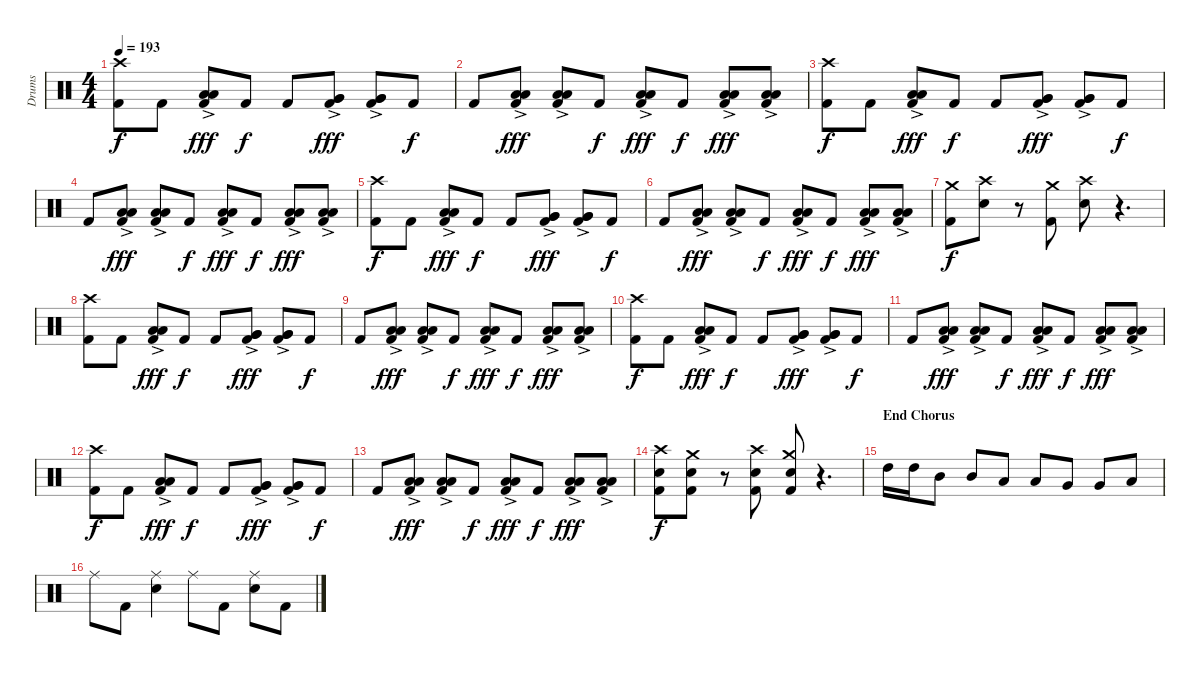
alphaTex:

\track ("Drums" "Drums") {instrument percussion}
\staff {score}
\articulation defaults
\ts (4 4)
\tempo 193
\clef neutral
\ks c
("Crash high (hit)" "Kick (hit) 2").8{dy f} "Kick (hit) 2".8 ("Low Tom (hit)"{ac} "Low Tom (hit)"{ac} "Kick (hit) 2").8{dy fff} "Kick (hit) 2".8{dy f} "Kick (hit) 2".8 ("Very Low Tom (hit)"{ac} "Very Low Tom (hit)"{ac} "Kick (hit) 2").8{dy fff} ("Very Low Tom (hit)"{ac} "Very Low Tom (hit)"{ac} "Kick (hit) 2").8 "Kick (hit) 2".8{dy f} |
"Kick (hit) 2".8 ("Low Floor Tom (hit)"{ac} "Low Floor Tom (hit)"{ac} "Kick (hit) 2").8{dy fff} ("Low Floor Tom (hit)"{ac} "Low Floor Tom (hit)"{ac} "Kick (hit) 2").8 "Kick (hit) 2".8{dy f} ("Low Floor Tom (hit)"{ac} "Low Floor Tom (hit)"{ac} "Kick (hit) 2").8{dy fff} "Kick (hit) 2".8{dy f} ("Low Floor Tom (hit)"{ac} "Low Floor Tom (hit)"{ac} "Kick (hit) 2"{ac}).8{dy fff} ("Low Floor Tom (hit)"{ac} "Low Floor Tom (hit)"{ac} "Kick (hit) 2"{ac}).8 |
("Crash high (hit)" "Kick (hit) 2").8{dy f} "Kick (hit) 2".8 ("Low Tom (hit)"{ac} "Low Tom (hit)"{ac} "Kick (hit) 2").8{dy fff} "Kick (hit) 2".8{dy f} "Kick (hit) 2".8 ("Very Low Tom (hit)"{ac} "Very Low Tom (hit)"{ac} "Kick (hit) 2").8{dy fff} ("Very Low Tom (hit)"{ac} "Very Low Tom (hit)"{ac} "Kick (hit) 2").8 "Kick (hit) 2".8{dy f} |
"Kick (hit) 2".8 ("Low Floor Tom (hit)"{ac} "Low Floor Tom (hit)"{ac} "Kick (hit) 2").8{dy fff} ("Low Floor Tom (hit)"{ac} "Low Floor Tom (hit)"{ac} "Kick (hit) 2").8 "Kick (hit) 2".8{dy f} ("Low Floor Tom (hit)"{ac} "Low Floor Tom (hit)"{ac} "Kick (hit) 2").8{dy fff} "Kick (hit) 2".8{dy f} ("Low Floor Tom (hit)"{ac} "Low Floor Tom (hit)"{ac} "Kick (hit) 2"{ac}).8{dy fff} ("Low Floor Tom (hit)"{ac} "Low Floor Tom (hit)"{ac} "Kick (hit) 2"{ac}).8 |
("Crash high (hit)" "Kick (hit) 2").8{dy f} "Kick (hit) 2".8 ("Low Tom (hit)"{ac} "Low Tom (hit)"{ac} "Kick (hit) 2").8{dy fff} "Kick (hit) 2".8{dy f} "Kick (hit) 2".8 ("Very Low Tom (hit)"{ac} "Very Low Tom (hit)"{ac} "Kick (hit) 2").8{dy fff} ("Very Low Tom (hit)"{ac} "Very Low Tom (hit)"{ac} "Kick (hit) 2").8 "Kick (hit) 2".8{dy f} |
"Kick (hit) 2".8 ("Low Floor Tom (hit)"{ac} "Low Floor Tom (hit)"{ac} "Kick (hit) 2").8{dy fff} ("Low Floor Tom (hit)"{ac} "Low Floor Tom (hit)"{ac} "Kick (hit) 2").8 "Kick (hit) 2".8{dy f} ("Low Floor Tom (hit)"{ac} "Low Floor Tom (hit)"{ac} "Kick (hit) 2").8{dy fff} "Kick (hit) 2".8{dy f} ("Low Floor Tom (hit)"{ac} "Low Floor Tom (hit)"{ac} "Kick (hit) 2"{ac}).8{dy fff} ("Low Floor Tom (hit)"{ac} "Low Floor Tom (hit)"{ac} "Kick (hit) 2"{ac}).8 |
("Crash medium (hit)" "Kick (hit) 2").8{dy f} ("Crash high (hit)" "Snare (hit) 2").8 r.8 ("Crash medium (hit)" "Kick (hit) 2").8 ("Crash high (hit)" "Snare (hit) 2").8 r.4{d} |
("Crash high (hit)" "Kick (hit) 2").8 "Kick (hit) 2".8 ("Low Tom (hit)"{ac} "Low Tom (hit)"{ac} "Kick (hit) 2").8{dy fff} "Kick (hit) 2".8{dy f} "Kick (hit) 2".8 ("Very Low Tom (hit)"{ac} "Very Low Tom (hit)"{ac} "Kick (hit) 2").8{dy fff} ("Very Low Tom (hit)"{ac} "Very Low Tom (hit)"{ac} "Kick (hit) 2").8 "Kick (hit) 2".8{dy f} |
"Kick (hit) 2".8 ("Low Floor Tom (hit)"{ac} "Low Floor Tom (hit)"{ac} "Kick (hit) 2").8{dy fff} ("Low Floor Tom (hit)"{ac} "Low Floor Tom (hit)"{ac} "Kick (hit) 2").8 "Kick (hit) 2".8{dy f} ("Low Floor Tom (hit)"{ac} "Low Floor Tom (hit)"{ac} "Kick (hit) 2").8{dy fff} "Kick (hit) 2".8{dy f} ("Low Floor Tom (hit)"{ac} "Low Floor Tom (hit)"{ac} "Kick (hit) 2"{ac}).8{dy fff} ("Low Floor Tom (hit)"{ac} "Low Floor Tom (hit)"{ac} "Kick (hit) 2"{ac}).8 |
("Crash high (hit)" "Kick (hit) 2").8{dy f} "Kick (hit) 2".8 ("Low Tom (hit)"{ac} "Low Tom (hit)"{ac} "Kick (hit) 2").8{dy fff} "Kick (hit) 2".8{dy f} "Kick (hit) 2".8 ("Very Low Tom (hit)"{ac} "Very Low Tom (hit)"{ac} "Kick (hit) 2").8{dy fff} ("Very Low Tom (hit)"{ac} "Very Low Tom (hit)"{ac} "Kick (hit) 2").8 "Kick (hit) 2".8{dy f} |
"Kick (hit) 2".8 ("Low Floor Tom (hit)"{ac} "Low Floor Tom (hit)"{ac} "Kick (hit) 2").8{dy fff} ("Low Floor Tom (hit)"{ac} "Low Floor Tom (hit)"{ac} "Kick (hit) 2").8 "Kick (hit) 2".8{dy f} ("Low Floor Tom (hit)"{ac} "Low Floor Tom (hit)"{ac} "Kick (hit) 2").8{dy fff} "Kick (hit) 2".8{dy f} ("Low Floor Tom (hit)"{ac} "Low Floor Tom (hit)"{ac} "Kick (hit) 2"{ac}).8{dy fff} ("Low Floor Tom (hit)"{ac} "Low Floor Tom (hit)"{ac} "Kick (hit) 2"{ac}).8 |
("Crash high (hit)" "Kick (hit) 2").8{dy f} "Kick (hit) 2".8 ("Low Tom (hit)"{ac} "Low Tom (hit)"{ac} "Kick (hit) 2").8{dy fff} "Kick (hit) 2".8{dy f} "Kick (hit) 2".8 ("Very Low Tom (hit)"{ac} "Very Low Tom (hit)"{ac} "Kick (hit) 2").8{dy fff} ("Very Low Tom (hit)"{ac} "Very Low Tom (hit)"{ac} "Kick (hit) 2").8 "Kick (hit) 2".8{dy f} |
"Kick (hit) 2".8 ("Low Floor Tom (hit)"{ac} "Low Floor Tom (hit)"{ac} "Kick (hit) 2").8{dy fff} ("Low Floor Tom (hit)"{ac} "Low Floor Tom (hit)"{ac} "Kick (hit) 2").8 "Kick (hit) 2".8{dy f} ("Low Floor Tom (hit)"{ac} "Low Floor Tom (hit)"{ac} "Kick (hit) 2").8{dy fff} "Kick (hit) 2".8{dy f} ("Low Floor Tom (hit)"{ac} "Low Floor Tom (hit)"{ac} "Kick (hit) 2"{ac}).8{dy fff} ("Low Floor Tom (hit)"{ac} "Low Floor Tom (hit)"{ac} "Kick (hit) 2"{ac}).8 |
("Crash high (hit)" "Snare (hit) 2" "Kick (hit) 2").8{dy f} ("Crash medium (hit)" "Snare (hit) 2" "Kick (hit) 2").8 r.8 ("Crash high (hit)" "Snare (hit) 2" "Kick (hit) 2").8 ("Crash medium (hit)" "Snare (hit) 2" "Kick (hit) 2").8 r.4{d} |
\section ("" "End Chorus")
"High Tom (hit)".16 "High Tom (hit)".16 "Mid Tom (hit)".8 "Mid Tom (hit)".8 "Low Tom (hit)".8 "Low Tom (hit)".8 "Very Low Tom (hit)".8 "Very Low Tom (hit)".8 "Low Floor Tom (hit)".8 |
"Ride (middle)".8 "Kick (hit) 2".8 ("Ride (middle)" "Snare (hit) 2").4 "Ride (middle)".8 "Kick (hit) 2".8 ("Ride (middle)" "Snare (hit) 2").8 "Kick (hit) 2".8
